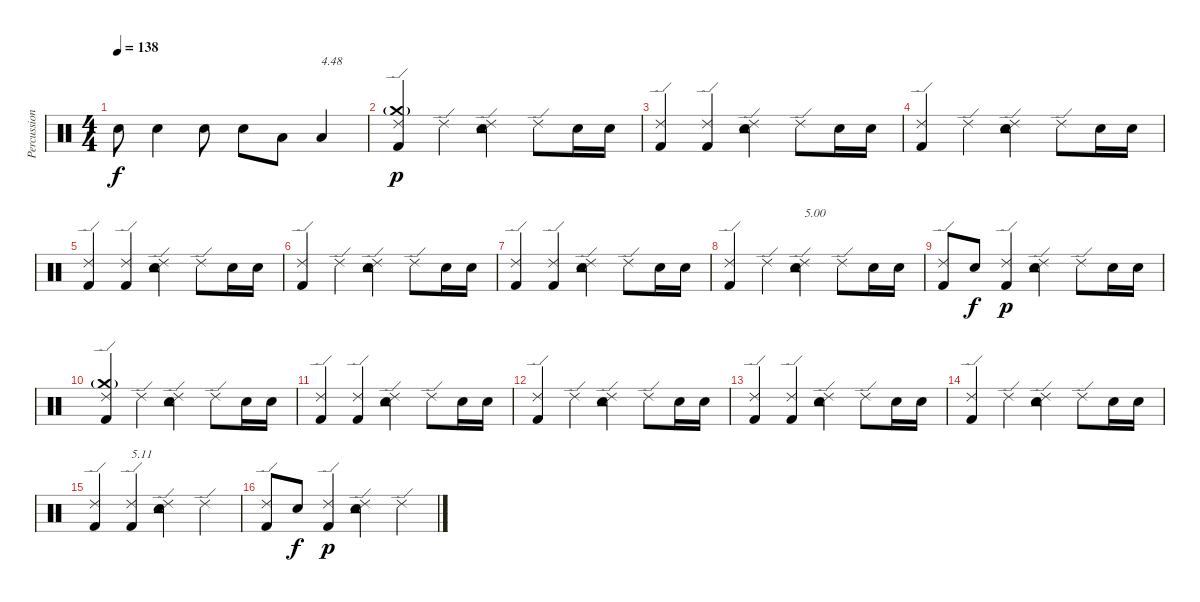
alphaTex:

\track ("Percussions" "Percussion") {instrument percussion}
\staff {score}
\articulation defaults
\ts (4 4)
\tempo 138
\clef neutral
\ks c "Snare (hit) 2".8{dy f} "Snare (hit) 2".4 "Snare (hit) 2".8 "Snare (hit) 2".8 "Low Floor Tom (hit)".8 "Low Floor Tom (hit)".4{txt "4.48"}
|
("Kick (hit) 2" "Crash medium (hit)"{g} "Ride (edge) 2").4{dy p} "Ride (edge) 2".4 ("Snare (hit) 2" "Tambourine (hit)" "Ride (edge) 2").4 "Ride (edge) 2".8 "Snare (hit) 2".16 "Snare (hit) 2".16 |
("Kick (hit) 2" "Ride (edge) 2").4 ("Kick (hit) 2" "Ride (edge) 2").4 ("Snare (hit) 2" "Tambourine (hit)" "Ride (edge) 2").4 "Ride (edge) 2".8 "Snare (hit) 2".16 "Snare (hit) 2".16 |
("Kick (hit) 2" "Ride (edge) 2").4 "Ride (edge) 2".4 ("Snare (hit) 2" "Tambourine (hit)" "Ride (edge) 2").4 "Ride (edge) 2".8 "Snare (hit) 2".16 "Snare (hit) 2".16 |
("Kick (hit) 2" "Ride (edge) 2").4 ("Kick (hit) 2" "Ride (edge) 2").4 ("Snare (hit) 2" "Tambourine (hit)" "Ride (edge) 2").4 "Ride (edge) 2".8 "Snare (hit) 2".16 "Snare (hit) 2".16 |
("Kick (hit) 2" "Ride (edge) 2").4 "Ride (edge) 2".4 ("Snare (hit) 2" "Tambourine (hit)" "Ride (edge) 2").4 "Ride (edge) 2".8 "Snare (hit) 2".16 "Snare (hit) 2".16 |
("Kick (hit) 2" "Ride (edge) 2").4 ("Kick (hit) 2" "Ride (edge) 2").4 ("Snare (hit) 2" "Tambourine (hit)" "Ride (edge) 2").4 "Ride (edge) 2".8 "Snare (hit) 2".16 "Snare (hit) 2".16 |
("Kick (hit) 2" "Ride (edge) 2").4 "Ride (edge) 2".4 ("Snare (hit) 2" "Tambourine (hit)" "Ride (edge) 2").4{txt "5.00"} "Ride (edge) 2".8 "Snare (hit) 2".16 "Snare (hit) 2".16 |
("Kick (hit) 2" "Ride (edge) 2").8 "Snare (hit) 2".8{dy f} ("Kick (hit) 2" "Ride (edge) 2").4{dy p} ("Snare (hit) 2" "Tambourine (hit)" "Ride (edge) 2").4 "Ride (edge) 2".8 "Snare (hit) 2".16 "Snare (hit) 2".16 |
("Kick (hit) 2" "Crash medium (hit)"{g} "Ride (edge) 2").4 "Ride (edge) 2".4 ("Snare (hit) 2" "Tambourine (hit)" "Ride (edge) 2").4 "Ride (edge) 2".8 "Snare (hit) 2".16 "Snare (hit) 2".16 |
("Kick (hit) 2" "Ride (edge) 2").4 ("Kick (hit) 2" "Ride (edge) 2").4 ("Snare (hit) 2" "Tambourine (hit)" "Ride (edge) 2").4 "Ride (edge) 2".8 "Snare (hit) 2".16 "Snare (hit) 2".16 |
("Kick (hit) 2" "Ride (edge) 2").4 "Ride (edge) 2".4 ("Snare (hit) 2" "Tambourine (hit)" "Ride (edge) 2").4 "Ride (edge) 2".8 "Snare (hit) 2".16 "Snare (hit) 2".16 |
("Kick (hit) 2" "Ride (edge) 2").4 ("Kick (hit) 2" "Ride (edge) 2").4 ("Snare (hit) 2" "Tambourine (hit)" "Ride (edge) 2").4 "Ride (edge) 2".8 "Snare (hit) 2".16 "Snare (hit) 2".16 |
("Kick (hit) 2" "Ride (edge) 2").4 "Ride (edge) 2".4 ("Snare (hit) 2" "Tambourine (hit)" "Ride (edge) 2").4 "Ride (edge) 2".8 "Snare (hit) 2".16 "Snare (hit) 2".16 |
("Kick (hit) 2" "Ride (edge) 2").4 ("Kick (hit) 2" "Ride (edge) 2").4{txt "5.11"} ("Snare (hit) 2" "Tambourine (hit)" "Ride (edge) 2").4 "Ride (edge) 2".4 |
("Kick (hit) 2" "Ride (edge) 2").8 "Snare (hit) 2".8{dy f} ("Kick (hit) 2" "Ride (edge) 2").4{dy p} ("Snare (hit) 2" "Tambourine (hit)" "Ride (edge) 2").4 "Ride (edge) 2".4
